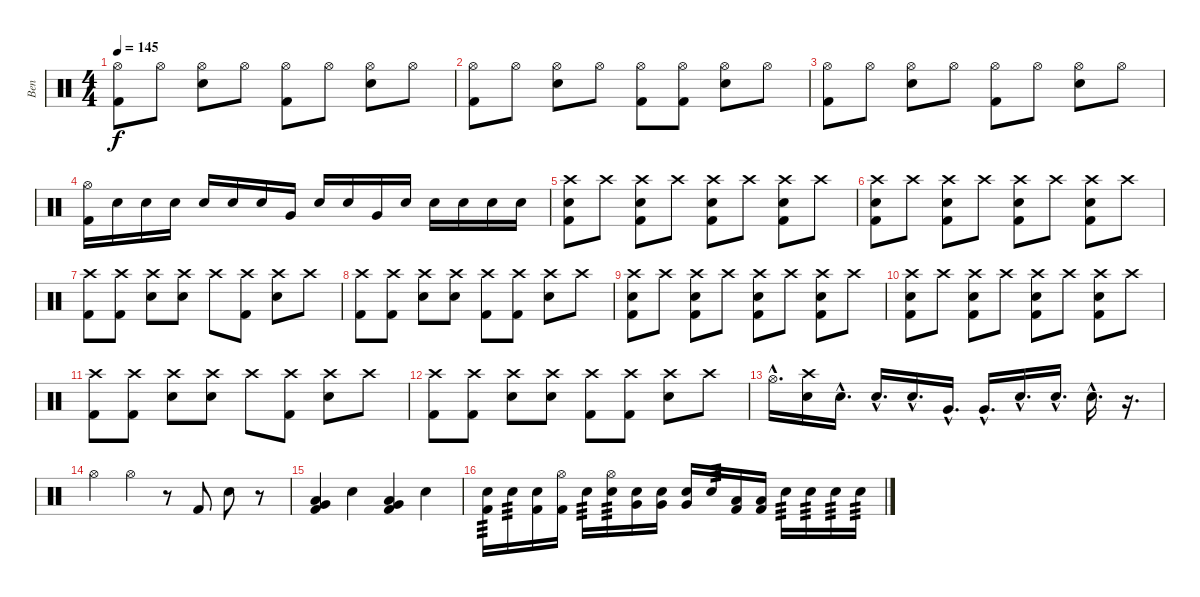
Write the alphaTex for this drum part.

\track ("Ben" "Ben") {instrument percussion}
\staff {score}
\articulation defaults
\ts (4 4)
\tempo 145
\clef neutral
\ks c
("Hi-Hat (open)" "Kick (hit) 2").8{dy f} "Hi-Hat (open)".8 ("Hi-Hat (open)" "Electric Snare (hit)").8 "Hi-Hat (open)".8 ("Hi-Hat (open)" "Kick (hit) 2").8 "Hi-Hat (open)".8 ("Hi-Hat (open)" "Electric Snare (hit)").8 "Hi-Hat (open)".8 |
("Hi-Hat (open)" "Kick (hit) 2").8 "Hi-Hat (open)".8 ("Hi-Hat (open)" "Electric Snare (hit)").8 "Hi-Hat (open)".8 ("Hi-Hat (open)" "Kick (hit) 2").8 ("Hi-Hat (open)" "Kick (hit) 2").8 ("Hi-Hat (open)" "Electric Snare (hit)").8 "Hi-Hat (open)".8 |
("Hi-Hat (open)" "Kick (hit) 2").8 "Hi-Hat (open)".8 ("Hi-Hat (open)" "Electric Snare (hit)").8 "Hi-Hat (open)".8 ("Hi-Hat (open)" "Kick (hit) 2").8 "Hi-Hat (open)".8 ("Hi-Hat (open)" "Electric Snare (hit)").8 "Hi-Hat (open)".8 |
("Hi-Hat (open)" "Kick (hit) 2").16 "Electric Snare (hit)".16 "Electric Snare (hit)".16 "Electric Snare (hit)".16 "Electric Snare (hit)".16 "Electric Snare (hit)".16 "Electric Snare (hit)".16 "Very Low Tom (hit)".16 "Electric Snare (hit)".16 "Electric Snare (hit)".16 "Very Low Tom (hit)".16 "Electric Snare (hit)".16 "Electric Snare (hit)".16 "Electric Snare (hit)".16 "Electric Snare (hit)".16 "Electric Snare (hit)".16 |
("Crash high (hit)" "Electric Snare (hit)" "Kick (hit) 2").8 "Crash high (hit)".8 ("Crash high (hit)" "Electric Snare (hit)" "Kick (hit) 2").8 "Crash high (hit)".8 ("Crash high (hit)" "Electric Snare (hit)" "Kick (hit) 2").8 "Crash high (hit)".8 ("Crash high (hit)" "Electric Snare (hit)" "Kick (hit) 2").8 "Crash high (hit)".8 |
("Crash high (hit)" "Electric Snare (hit)" "Kick (hit) 2").8 "Crash high (hit)".8 ("Crash high (hit)" "Electric Snare (hit)" "Kick (hit) 2").8 "Crash high (hit)".8 ("Crash high (hit)" "Electric Snare (hit)" "Kick (hit) 2").8 "Crash high (hit)".8 ("Crash high (hit)" "Electric Snare (hit)" "Kick (hit) 2").8 "Crash high (hit)".8 |
("Crash high (hit)" "Kick (hit) 2").8 ("Crash high (hit)" "Kick (hit) 2").8 ("Crash high (hit)" "Electric Snare (hit)").8 ("Crash high (hit)" "Electric Snare (hit)").8 "Crash high (hit)".8 ("Crash high (hit)" "Kick (hit) 2").8 ("Crash high (hit)" "Electric Snare (hit)").8 "Crash high (hit)".8 |
("Crash high (hit)" "Kick (hit) 2").8 ("Crash high (hit)" "Kick (hit) 2").8 ("Crash high (hit)" "Electric Snare (hit)").8 ("Crash high (hit)" "Electric Snare (hit)").8 ("Crash high (hit)" "Kick (hit) 2").8 ("Crash high (hit)" "Kick (hit) 2").8 ("Crash high (hit)" "Electric Snare (hit)").8 "Crash high (hit)".8 |
("Crash high (hit)" "Electric Snare (hit)" "Kick (hit) 2").8 "Crash high (hit)".8 ("Crash high (hit)" "Electric Snare (hit)" "Kick (hit) 2").8 "Crash high (hit)".8 ("Crash high (hit)" "Electric Snare (hit)" "Kick (hit) 2").8 "Crash high (hit)".8 ("Crash high (hit)" "Electric Snare (hit)" "Kick (hit) 2").8 "Crash high (hit)".8 |
("Crash high (hit)" "Electric Snare (hit)" "Kick (hit) 2").8 "Crash high (hit)".8 ("Crash high (hit)" "Electric Snare (hit)" "Kick (hit) 2").8 "Crash high (hit)".8 ("Crash high (hit)" "Electric Snare (hit)" "Kick (hit) 2").8 "Crash high (hit)".8 ("Crash high (hit)" "Electric Snare (hit)" "Kick (hit) 2").8 "Crash high (hit)".8 |
("Crash high (hit)" "Kick (hit) 2").8 ("Crash high (hit)" "Kick (hit) 2").8 ("Crash high (hit)" "Electric Snare (hit)").8 ("Crash high (hit)" "Electric Snare (hit)").8 "Crash high (hit)".8 ("Crash high (hit)" "Kick (hit) 2").8 ("Crash high (hit)" "Electric Snare (hit)").8 "Crash high (hit)".8 |
("Crash high (hit)" "Kick (hit) 2").8 ("Crash high (hit)" "Kick (hit) 2").8 ("Crash high (hit)" "Electric Snare (hit)").8 ("Crash high (hit)" "Electric Snare (hit)").8 ("Crash high (hit)" "Kick (hit) 2").8 ("Crash high (hit)" "Kick (hit) 2").8 ("Crash high (hit)" "Electric Snare (hit)").8 "Crash high (hit)".8 |
"Hi-Hat (open)"{hac}.16{d} ("Crash high (hit)" "Electric Snare (hit)").16 "Electric Snare (hit)"{hac}.16{d} "Electric Snare (hit)"{hac}.16{d} "Electric Snare (hit)"{hac}.16{d} "Very Low Tom (hit)"{hac}.16{d} "Very Low Tom (hit)"{hac}.16{d} "Electric Snare (hit)"{hac}.16{d} "Electric Snare (hit)"{hac}.16{d} "Electric Snare (hit)"{hac}.16{d} r.16{d} |
"Hi-Hat (open)".4 "Hi-Hat (open)".4 r.8 "Kick (hit) 2".8 "Electric Snare (hit)".8 r.8 |
("Very Low Tom (hit)" "Low Floor Tom (hit)" "Kick (hit) 2").4 "Electric Snare (hit)".4 ("Very Low Tom (hit)" "Low Floor Tom (hit)" "Kick (hit) 2").4 "Electric Snare (hit)".4 |
("Electric Snare (hit)" "Kick (hit) 2").16{tp 3} "Electric Snare (hit)".16{tp 3} ("Electric Snare (hit)" "Kick (hit) 2").16 ("Hi-Hat (open)" "Kick (hit) 2").16 "Electric Snare (hit)".16{tp 3} ("Hi-Hat (open)" "Electric Snare (hit)").16{tp 3} ("Very Low Tom (hit)" "Electric Snare (hit)").16 ("Very Low Tom (hit)" "Electric Snare (hit)").16 ("Very Low Tom (hit)" "Electric Snare (hit)").16 "Electric Snare (hit)".16{tp 3} ("Low Floor Tom (hit)" "Kick (hit) 2").16 ("Low Floor Tom (hit)" "Kick (hit) 2").16 "Electric Snare (hit)".16{tp 3} "Electric Snare (hit)".16{tp 3} "Electric Snare (hit)".16{tp 3} "Electric Snare (hit)".16{tp 3}
